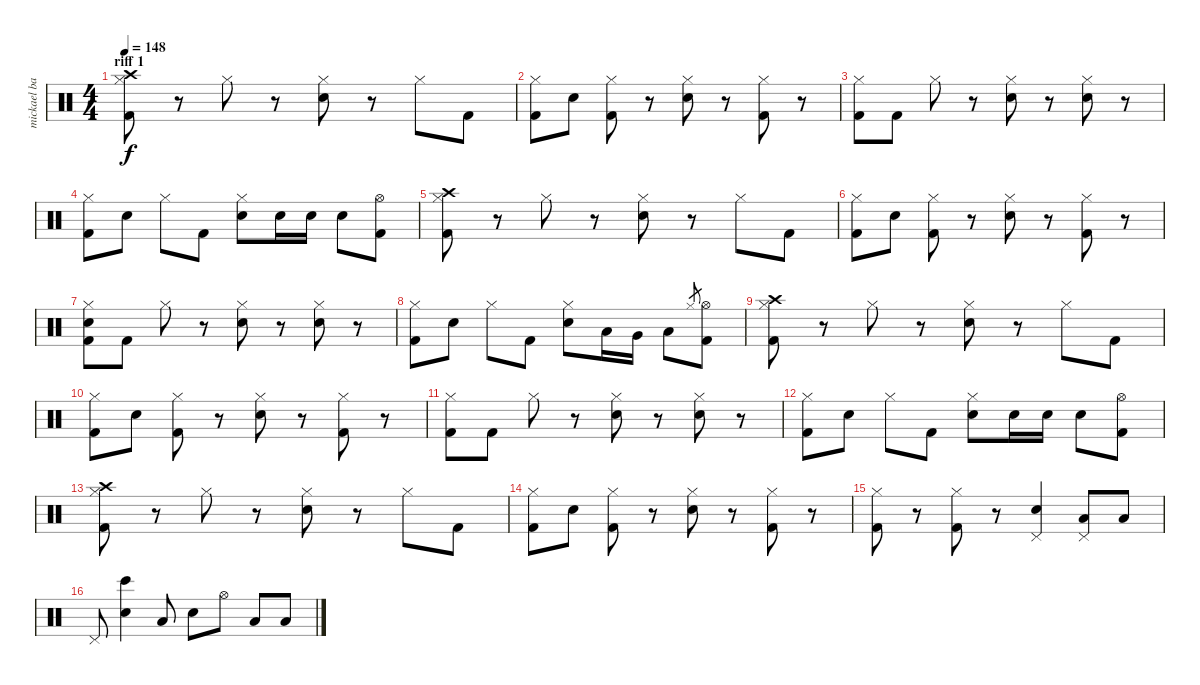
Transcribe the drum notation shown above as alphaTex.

\track ("mickael barker drums" "mickael ba") {instrument percussion}
\staff {score}
\articulation defaults
\ts (4 4)
\section ("" "riff 1")
\tempo 148
\clef neutral
\ks c
("Crash high (hit)" "Hi-Hat (closed)" "Kick (hit) 2").8{dy f} r.8 "Hi-Hat (closed)".8 r.8 ("Hi-Hat (closed)" "Snare (hit) 2").8 r.8 "Hi-Hat (closed)".8 "Kick (hit) 2".8 |
("Hi-Hat (closed)" "Kick (hit) 2").8 "Snare (hit) 2".8 ("Hi-Hat (closed)" "Kick (hit) 2").8 r.8 ("Hi-Hat (closed)" "Snare (hit) 2").8 r.8 ("Hi-Hat (closed)" "Kick (hit) 2").8 r.8 |
("Hi-Hat (closed)" "Kick (hit) 2").8 "Kick (hit) 2".8 "Hi-Hat (closed)".8 r.8 ("Hi-Hat (closed)" "Snare (hit) 2").8 r.8 ("Hi-Hat (closed)" "Snare (hit) 2").8 r.8 |
("Hi-Hat (closed)" "Kick (hit) 2").8 "Snare (hit) 2".8 "Hi-Hat (closed)".8 "Kick (hit) 2".8 ("Hi-Hat (closed)" "Snare (hit) 2").8 "Snare (hit) 2".16 "Snare (hit) 2".16 "Snare (hit) 2".8 ("Hi-Hat (open)" "Kick (hit) 2").8 |
("Crash high (hit)" "Hi-Hat (closed)" "Kick (hit) 2").8 r.8 "Hi-Hat (closed)".8 r.8 ("Hi-Hat (closed)" "Snare (hit) 2").8 r.8 "Hi-Hat (closed)".8 "Kick (hit) 2".8 |
("Hi-Hat (closed)" "Kick (hit) 2").8 "Snare (hit) 2".8 ("Hi-Hat (closed)" "Kick (hit) 2").8 r.8 ("Hi-Hat (closed)" "Snare (hit) 2").8 r.8 ("Hi-Hat (closed)" "Kick (hit) 2").8 r.8 |
("Hi-Hat (closed)" "Snare (hit) 2" "Kick (hit) 2").8 "Kick (hit) 2".8 "Hi-Hat (closed)".8 r.8 ("Hi-Hat (closed)" "Snare (hit) 2").8 r.8 ("Hi-Hat (closed)" "Snare (hit) 2").8 r.8 |
("Hi-Hat (closed)" "Kick (hit) 2").8 "Snare (hit) 2".8 "Hi-Hat (closed)".8 "Kick (hit) 2".8 ("Hi-Hat (closed)" "Snare (hit) 2").8 "Low Tom (hit)".16 "Very Low Tom (hit)".16 "Low Floor Tom (hit)".8 "Hi-Hat (closed)".8{gr} ("Hi-Hat (open)" "Kick (hit) 2").8 |
("Crash high (hit)" "Hi-Hat (closed)" "Kick (hit) 2").8 r.8 "Hi-Hat (closed)".8 r.8 ("Hi-Hat (closed)" "Snare (hit) 2").8 r.8 "Hi-Hat (closed)".8 "Kick (hit) 2".8 |
("Hi-Hat (closed)" "Kick (hit) 2").8 "Snare (hit) 2".8 ("Hi-Hat (closed)" "Kick (hit) 2").8 r.8 ("Hi-Hat (closed)" "Snare (hit) 2").8 r.8 ("Hi-Hat (closed)" "Kick (hit) 2").8 r.8 |
("Hi-Hat (closed)" "Kick (hit) 2").8 "Kick (hit) 2".8 "Hi-Hat (closed)".8 r.8 ("Hi-Hat (closed)" "Snare (hit) 2").8 r.8 ("Hi-Hat (closed)" "Snare (hit) 2").8 r.8 |
("Hi-Hat (closed)" "Kick (hit) 2").8 "Snare (hit) 2".8 "Hi-Hat (closed)".8 "Kick (hit) 2".8 ("Hi-Hat (closed)" "Snare (hit) 2").8 "Snare (hit) 2".16 "Snare (hit) 2".16 "Snare (hit) 2".8 ("Hi-Hat (open)" "Kick (hit) 2").8 |
("Crash high (hit)" "Hi-Hat (closed)" "Kick (hit) 2").8 r.8 "Hi-Hat (closed)".8 r.8 ("Hi-Hat (closed)" "Snare (hit) 2").8 r.8 "Hi-Hat (closed)".8 "Kick (hit) 2".8 |
("Hi-Hat (closed)" "Kick (hit) 2").8 "Snare (hit) 2".8 ("Hi-Hat (closed)" "Kick (hit) 2").8 r.8 ("Hi-Hat (closed)" "Snare (hit) 2").8 r.8 ("Hi-Hat (closed)" "Kick (hit) 2").8 r.8 |
("Hi-Hat (closed)" "Kick (hit) 2").8 r.8 ("Hi-Hat (closed)" "Kick (hit) 2").8 r.8 ("Pedal Hi-Hat (hit)" "Snare (hit) 2").4 ("Pedal Hi-Hat (hit)" "Low Tom (hit)").8 "Low Tom (hit)".8 |
"Pedal Hi-Hat (hit)".8 ("Bongo High (hit)" "Snare (hit) 2").4 "Low Tom (hit)".8 "Snare (hit) 2".8 "Hi-Hat (open)".8 "Low Tom (hit)".8 "Low Floor Tom (hit)".8
